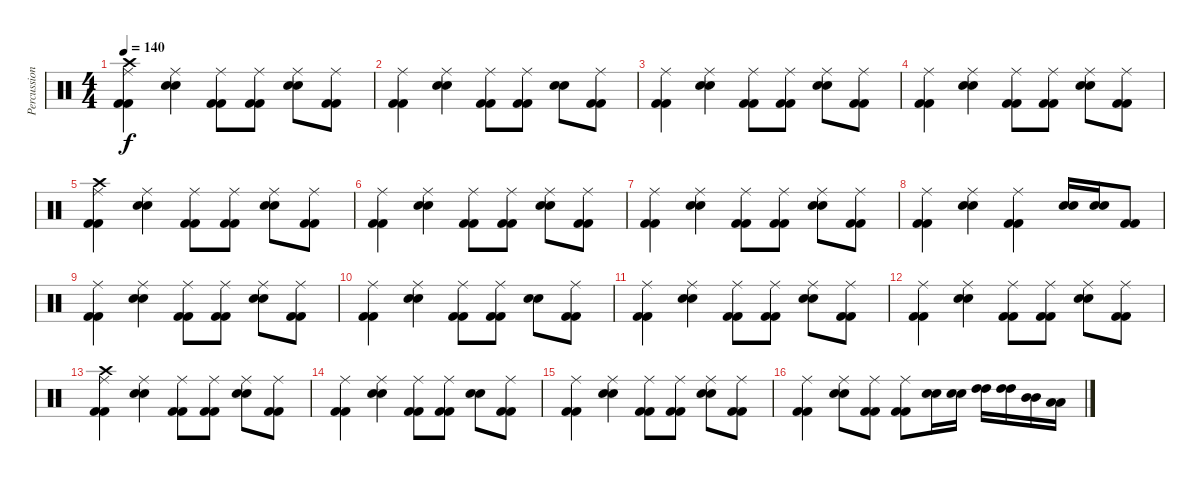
\track ("Percussion" "Percussion") {instrument percussion}
\staff {score}
\articulation defaults
\ts (4 4)
\tempo 140
\clef neutral
\ks c
("Kick (hit) 2" "Kick (hit) 2" "Ride (middle)" "Crash high (hit)").4{dy f} ("Snare (hit) 2" "Snare (hit) 2" "Ride (middle)").4 ("Kick (hit) 2" "Kick (hit) 2" "Ride (middle)").8 ("Kick (hit) 2" "Kick (hit) 2" "Ride (middle)").8 ("Snare (hit) 2" "Snare (hit) 2" "Ride (middle)").8 ("Kick (hit) 2" "Kick (hit) 2" "Ride (middle)").8 |
("Kick (hit) 2" "Kick (hit) 2" "Ride (middle)").4 ("Snare (hit) 2" "Snare (hit) 2" "Ride (middle)").4 ("Kick (hit) 2" "Kick (hit) 2" "Ride (middle)").8 ("Kick (hit) 2" "Kick (hit) 2" "Ride (middle)").8 ("Snare (hit) 2" "Snare (hit) 2").8 ("Kick (hit) 2" "Kick (hit) 2" "Ride (middle)").8 |
("Kick (hit) 2" "Kick (hit) 2" "Ride (middle)").4 ("Snare (hit) 2" "Snare (hit) 2" "Ride (middle)").4 ("Kick (hit) 2" "Kick (hit) 2" "Ride (middle)").8 ("Kick (hit) 2" "Kick (hit) 2" "Ride (middle)").8 ("Snare (hit) 2" "Snare (hit) 2" "Ride (middle)").8 ("Kick (hit) 2" "Kick (hit) 2" "Ride (middle)").8 |
("Kick (hit) 2" "Kick (hit) 2" "Ride (middle)").4 ("Snare (hit) 2" "Snare (hit) 2" "Ride (middle)").4 ("Kick (hit) 2" "Kick (hit) 2" "Ride (middle)").8 ("Kick (hit) 2" "Kick (hit) 2" "Ride (middle)").8 ("Snare (hit) 2" "Snare (hit) 2" "Ride (middle)").8 ("Kick (hit) 2" "Kick (hit) 2" "Ride (middle)").8 |
("Kick (hit) 2" "Kick (hit) 2" "Ride (middle)" "Crash high (hit)").4 ("Snare (hit) 2" "Snare (hit) 2" "Ride (middle)").4 ("Kick (hit) 2" "Kick (hit) 2" "Ride (middle)").8 ("Kick (hit) 2" "Kick (hit) 2" "Ride (middle)").8 ("Snare (hit) 2" "Snare (hit) 2" "Ride (middle)").8 ("Kick (hit) 2" "Kick (hit) 2" "Ride (middle)").8 |
("Kick (hit) 2" "Kick (hit) 2" "Ride (middle)").4 ("Snare (hit) 2" "Snare (hit) 2" "Ride (middle)").4 ("Kick (hit) 2" "Kick (hit) 2" "Ride (middle)").8 ("Kick (hit) 2" "Kick (hit) 2" "Ride (middle)").8 ("Snare (hit) 2" "Snare (hit) 2" "Ride (middle)").8 ("Kick (hit) 2" "Kick (hit) 2" "Ride (middle)").8 |
("Kick (hit) 2" "Kick (hit) 2" "Ride (middle)").4 ("Snare (hit) 2" "Snare (hit) 2" "Ride (middle)").4 ("Kick (hit) 2" "Kick (hit) 2" "Ride (middle)").8 ("Kick (hit) 2" "Kick (hit) 2" "Ride (middle)").8 ("Snare (hit) 2" "Snare (hit) 2" "Ride (middle)").8 ("Kick (hit) 2" "Kick (hit) 2" "Ride (middle)").8 |
("Kick (hit) 2" "Kick (hit) 2" "Ride (middle)").4 ("Snare (hit) 2" "Snare (hit) 2" "Ride (middle)").4 ("Kick (hit) 2" "Kick (hit) 2" "Ride (middle)").4 ("Snare (hit) 2" "Snare (hit) 2").16 ("Snare (hit) 2" "Snare (hit) 2").16 ("Kick (hit) 2" "Kick (hit) 2").8 |
("Kick (hit) 2" "Kick (hit) 2" "Ride (middle)").4 ("Snare (hit) 2" "Snare (hit) 2" "Ride (middle)").4 ("Kick (hit) 2" "Kick (hit) 2" "Ride (middle)").8 ("Kick (hit) 2" "Kick (hit) 2" "Ride (middle)").8 ("Snare (hit) 2" "Snare (hit) 2" "Ride (middle)").8 ("Kick (hit) 2" "Kick (hit) 2" "Ride (middle)").8 |
("Kick (hit) 2" "Kick (hit) 2" "Ride (middle)").4 ("Snare (hit) 2" "Snare (hit) 2" "Ride (middle)").4 ("Kick (hit) 2" "Kick (hit) 2" "Ride (middle)").8 ("Kick (hit) 2" "Kick (hit) 2" "Ride (middle)").8 ("Snare (hit) 2" "Snare (hit) 2").8 ("Kick (hit) 2" "Kick (hit) 2" "Ride (middle)").8 |
("Kick (hit) 2" "Kick (hit) 2" "Ride (middle)").4 ("Snare (hit) 2" "Snare (hit) 2" "Ride (middle)").4 ("Kick (hit) 2" "Kick (hit) 2" "Ride (middle)").8 ("Kick (hit) 2" "Kick (hit) 2" "Ride (middle)").8 ("Snare (hit) 2" "Snare (hit) 2" "Ride (middle)").8 ("Kick (hit) 2" "Kick (hit) 2" "Ride (middle)").8 |
("Kick (hit) 2" "Kick (hit) 2" "Ride (middle)").4 ("Snare (hit) 2" "Snare (hit) 2" "Ride (middle)").4 ("Kick (hit) 2" "Kick (hit) 2" "Ride (middle)").8 ("Kick (hit) 2" "Kick (hit) 2" "Ride (middle)").8 ("Snare (hit) 2" "Snare (hit) 2" "Ride (middle)").8 ("Kick (hit) 2" "Kick (hit) 2" "Ride (middle)").8 |
("Kick (hit) 2" "Kick (hit) 2" "Ride (middle)" "Crash high (hit)").4 ("Snare (hit) 2" "Snare (hit) 2" "Ride (middle)").4 ("Kick (hit) 2" "Kick (hit) 2" "Ride (middle)").8 ("Kick (hit) 2" "Kick (hit) 2" "Ride (middle)").8 ("Snare (hit) 2" "Snare (hit) 2" "Ride (middle)").8 ("Kick (hit) 2" "Kick (hit) 2" "Ride (middle)").8 |
("Kick (hit) 2" "Kick (hit) 2" "Ride (middle)").4 ("Snare (hit) 2" "Snare (hit) 2" "Ride (middle)").4 ("Kick (hit) 2" "Kick (hit) 2" "Ride (middle)").8 ("Kick (hit) 2" "Kick (hit) 2" "Ride (middle)").8 ("Snare (hit) 2" "Snare (hit) 2").8 ("Kick (hit) 2" "Kick (hit) 2" "Ride (middle)").8 |
("Kick (hit) 2" "Kick (hit) 2" "Ride (middle)").4 ("Snare (hit) 2" "Snare (hit) 2" "Ride (middle)").4 ("Kick (hit) 2" "Kick (hit) 2" "Ride (middle)").8 ("Kick (hit) 2" "Kick (hit) 2" "Ride (middle)").8 ("Snare (hit) 2" "Snare (hit) 2" "Ride (middle)").8 ("Kick (hit) 2" "Kick (hit) 2" "Ride (middle)").8 |
("Kick (hit) 2" "Kick (hit) 2" "Ride (middle)").4 ("Snare (hit) 2" "Snare (hit) 2" "Ride (middle)").8 ("Kick (hit) 2" "Kick (hit) 2" "Ride (middle)").8 ("Kick (hit) 2" "Kick (hit) 2" "Ride (middle)").8 ("Snare (hit) 2" "Snare (hit) 2").16 ("Snare (hit) 2" "Snare (hit) 2").16 ("High Tom (hit)" "High Tom (hit)").16 ("High Tom (hit)" "High Tom (hit)").16 ("Mid Tom (hit)" "Mid Tom (hit)").16 ("Low Tom (hit)" "Low Tom (hit)").16
